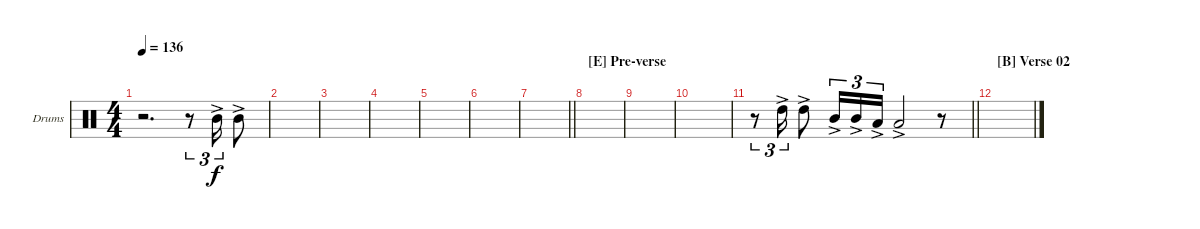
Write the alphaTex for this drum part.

\bracketExtendMode groupsimilarinstruments
\firstSystemTrackNameOrientation horizontal
\otherSystemsTrackNameOrientation horizontal
\track ("Drumkit" "Drums") {instrument percussion}
\staff {score}
\articulation defaults
\ts (4 4)
\tempo 136
\clef neutral
\scale
0.333333
\ks c
r.2{d dy f} r.8{tu (3 2)} "Mid Tom (hit)"{ac}.16{tu (3 2)} "Mid Tom (hit)"{ac}.8 |
\scale
0.333333 |
\scale
0.333333 |
\scale
0.333333 |
\scale
0.333333 |
\scale
0.333333 |
\scale
0.333333
\barLineRight lightlight
|
\section ("E" "Pre-verse")
\scale
0.333333 |
\scale
0.333333 |
\scale
0.171674 |
\scale
0.7361
\barLineRight lightlight
r.8{tu (3 2)} "High Tom (hit)"{ac}.16{tu (3 2)} "High Tom (hit)"{ac}.8 "Mid Tom (hit)"{ac}.16{tu (3 2)} "Mid Tom (hit)"{ac}.16{tu (3 2)} "Low Tom (hit)"{ac}.16{tu (3 2)} "Low Tom (hit)"{ac}.2 r.8 |
\section ("B" "Verse 02")
\scale
0.0926012 |
\scale
0.333333 |
\scale
0.333333 |
\scale
0.333333 |
\scale
0.333333
